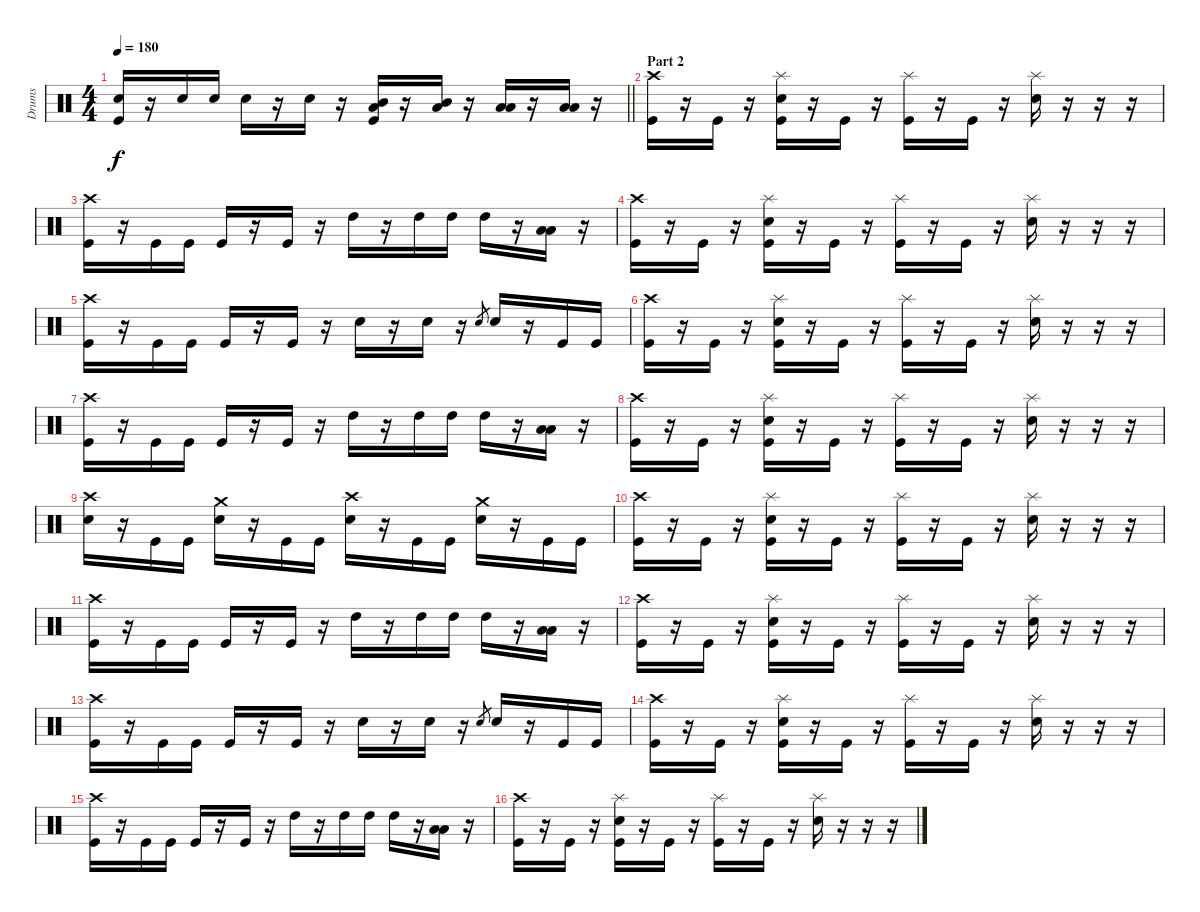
\track ("Drums" "Drums") {instrument percussion}
\staff {score}
\articulation defaults
\ts (4 4)
\tempo 180
\clef neutral
\barLineRight lightlight
\ks c
("Electric Snare (hit)" "Kick (hit)").16{dy f} r.16 "Electric Snare (hit)".16 "Electric Snare (hit)".16 "Electric Snare (hit)".16 r.16 "Electric Snare (hit)".16 r.16 ("Mid Tom (hit)" "Low Tom (hit)" "Kick (hit)").16 r.16 ("Mid Tom (hit)" "Low Tom (hit)").16 r.16 ("Low Tom (hit)" "Low Floor Tom (hit)").16 r.16 ("Low Tom (hit)" "Low Floor Tom (hit)").16 r.16 |
\section ("" "Part 2")
("Crash high (hit)" "Kick (hit)").16 r.16 "Kick (hit)".16 r.16 ("Splash (hit)" "Electric Snare (hit)" "Kick (hit)").16 r.16 "Kick (hit)".16 r.16 ("Splash (hit)" "Kick (hit)").16 r.16 "Kick (hit)".16 r.16 ("Splash (hit)" "Electric Snare (hit)").16 r.16 r.16 r.16 |
("Crash high (hit)" "Kick (hit)").16 r.16 "Kick (hit)".16 "Kick (hit)".16 "Kick (hit)".16 r.16 "Kick (hit)".16 r.16 "High Tom (hit)".16 r.16 "High Tom (hit)".16 "High Tom (hit)".16 "High Tom (hit)".16 r.16 ("Low Tom (hit)" "Low Floor Tom (hit)").16 r.16 |
("Crash high (hit)" "Kick (hit)").16 r.16 "Kick (hit)".16 r.16 ("Splash (hit)" "Electric Snare (hit)" "Kick (hit)").16 r.16 "Kick (hit)".16 r.16 ("Splash (hit)" "Kick (hit)").16 r.16 "Kick (hit)".16 r.16 ("Splash (hit)" "Electric Snare (hit)").16 r.16 r.16 r.16 |
("Crash high (hit)" "Kick (hit)").16 r.16 "Kick (hit)".16 "Kick (hit)".16 "Kick (hit)".16 r.16 "Kick (hit)".16 r.16 "Electric Snare (hit)".16 r.16 "Electric Snare (hit)".16 r.16 "Electric Snare (hit)".8{gr} "Electric Snare (hit)".16 r.16 "Kick (hit)".16 "Kick (hit)".16 |
("Crash high (hit)" "Kick (hit)").16 r.16 "Kick (hit)".16 r.16 ("Splash (hit)" "Electric Snare (hit)" "Kick (hit)").16 r.16 "Kick (hit)".16 r.16 ("Splash (hit)" "Kick (hit)").16 r.16 "Kick (hit)".16 r.16 ("Splash (hit)" "Electric Snare (hit)").16 r.16 r.16 r.16 |
("Crash high (hit)" "Kick (hit)").16 r.16 "Kick (hit)".16 "Kick (hit)".16 "Kick (hit)".16 r.16 "Kick (hit)".16 r.16 "High Tom (hit)".16 r.16 "High Tom (hit)".16 "High Tom (hit)".16 "High Tom (hit)".16 r.16 ("Low Tom (hit)" "Low Floor Tom (hit)").16 r.16 |
("Crash high (hit)" "Kick (hit)").16 r.16 "Kick (hit)".16 r.16 ("Splash (hit)" "Electric Snare (hit)" "Kick (hit)").16 r.16 "Kick (hit)".16 r.16 ("Splash (hit)" "Kick (hit)").16 r.16 "Kick (hit)".16 r.16 ("Splash (hit)" "Electric Snare (hit)").16 r.16 r.16 r.16 |
("Crash high (hit)" "Electric Snare (hit)").16 r.16 "Kick (hit)".16 "Kick (hit)".16 ("Crash medium (hit)" "Electric Snare (hit)").16 r.16 "Kick (hit)".16 "Kick (hit)".16 ("Crash high (hit)" "Electric Snare (hit)").16 r.16 "Kick (hit)".16 "Kick (hit)".16 ("Crash medium (hit)" "Electric Snare (hit)").16 r.16 "Kick (hit)".16 "Kick (hit)".16 |
("Crash high (hit)" "Kick (hit)").16 r.16 "Kick (hit)".16 r.16 ("Splash (hit)" "Electric Snare (hit)" "Kick (hit)").16 r.16 "Kick (hit)".16 r.16 ("Splash (hit)" "Kick (hit)").16 r.16 "Kick (hit)".16 r.16 ("Splash (hit)" "Electric Snare (hit)").16 r.16 r.16 r.16 |
("Crash high (hit)" "Kick (hit)").16 r.16 "Kick (hit)".16 "Kick (hit)".16 "Kick (hit)".16 r.16 "Kick (hit)".16 r.16 "High Tom (hit)".16 r.16 "High Tom (hit)".16 "High Tom (hit)".16 "High Tom (hit)".16 r.16 ("Low Tom (hit)" "Low Floor Tom (hit)").16 r.16 |
("Crash high (hit)" "Kick (hit)").16 r.16 "Kick (hit)".16 r.16 ("Splash (hit)" "Electric Snare (hit)" "Kick (hit)").16 r.16 "Kick (hit)".16 r.16 ("Splash (hit)" "Kick (hit)").16 r.16 "Kick (hit)".16 r.16 ("Splash (hit)" "Electric Snare (hit)").16 r.16 r.16 r.16 |
("Crash high (hit)" "Kick (hit)").16 r.16 "Kick (hit)".16 "Kick (hit)".16 "Kick (hit)".16 r.16 "Kick (hit)".16 r.16 "Electric Snare (hit)".16 r.16 "Electric Snare (hit)".16 r.16 "Electric Snare (hit)".8{gr} "Electric Snare (hit)".16 r.16 "Kick (hit)".16 "Kick (hit)".16 |
("Crash high (hit)" "Kick (hit)").16 r.16 "Kick (hit)".16 r.16 ("Splash (hit)" "Electric Snare (hit)" "Kick (hit)").16 r.16 "Kick (hit)".16 r.16 ("Splash (hit)" "Kick (hit)").16 r.16 "Kick (hit)".16 r.16 ("Splash (hit)" "Electric Snare (hit)").16 r.16 r.16 r.16 |
("Crash high (hit)" "Kick (hit)").16 r.16 "Kick (hit)".16 "Kick (hit)".16 "Kick (hit)".16 r.16 "Kick (hit)".16 r.16 "High Tom (hit)".16 r.16 "High Tom (hit)".16 "High Tom (hit)".16 "High Tom (hit)".16 r.16 ("Low Tom (hit)" "Low Floor Tom (hit)").16 r.16 |
("Crash high (hit)" "Kick (hit)").16 r.16 "Kick (hit)".16 r.16 ("Splash (hit)" "Electric Snare (hit)" "Kick (hit)").16 r.16 "Kick (hit)".16 r.16 ("Splash (hit)" "Kick (hit)").16 r.16 "Kick (hit)".16 r.16 ("Splash (hit)" "Electric Snare (hit)").16 r.16 r.16 r.16
